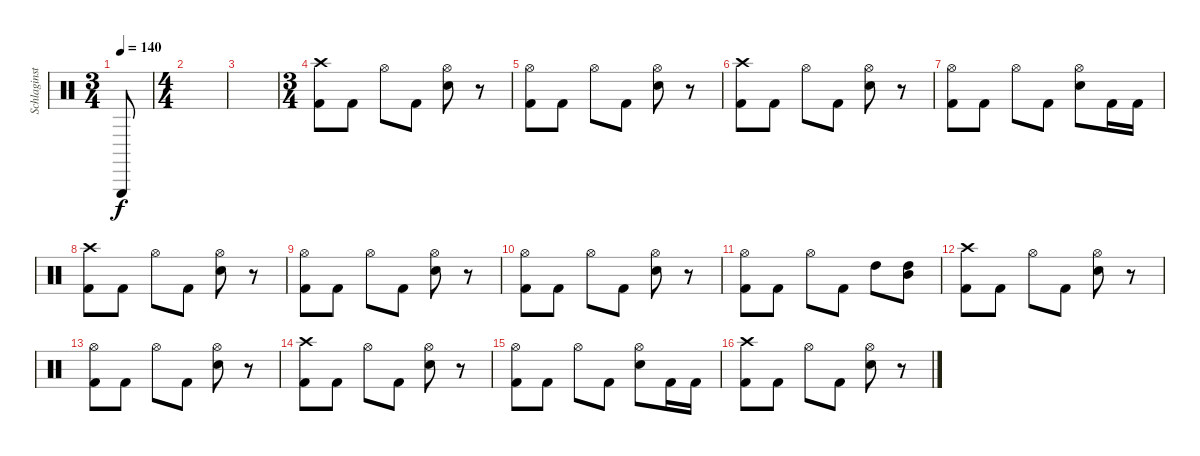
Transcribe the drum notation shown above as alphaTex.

\track ("Schlaginstrumente - Auswahl" "Schlaginst") {instrument percussion}
\staff {score}
\articulation defaults
\ts (3 4)
\tempo 140
\clef neutral
\ks c "Triangle (hit)".8{dy f}
|
\ts (4 4)
|
|
\ts (3 4)
("Crash high (hit)" "Kick (hit) 2").8 "Kick (hit) 2".8 "Hi-Hat (open)".8 "Kick (hit) 2".8 ("Hi-Hat (open)" "Electric Snare (hit)").8 r.8 |
("Hi-Hat (open)" "Kick (hit) 2").8 "Kick (hit) 2".8 "Hi-Hat (open)".8 "Kick (hit) 2".8 ("Hi-Hat (open)" "Electric Snare (hit)").8 r.8 |
("Crash high (hit)" "Kick (hit) 2").8 "Kick (hit) 2".8 "Hi-Hat (open)".8 "Kick (hit) 2".8 ("Hi-Hat (open)" "Electric Snare (hit)").8 r.8 |
("Hi-Hat (open)" "Kick (hit) 2").8 "Kick (hit) 2".8 "Hi-Hat (open)".8 "Kick (hit) 2".8 ("Hi-Hat (open)" "Electric Snare (hit)").8 "Kick (hit) 2".16 "Kick (hit) 2".16 |
("Crash high (hit)" "Kick (hit) 2").8 "Kick (hit) 2".8 "Hi-Hat (open)".8 "Kick (hit) 2".8 ("Hi-Hat (open)" "Electric Snare (hit)").8 r.8 |
("Hi-Hat (open)" "Kick (hit) 2").8 "Kick (hit) 2".8 "Hi-Hat (open)".8 "Kick (hit) 2".8 ("Hi-Hat (open)" "Electric Snare (hit)").8 r.8 |
("Hi-Hat (open)" "Kick (hit) 2").8 "Kick (hit) 2".8 "Hi-Hat (open)".8 "Kick (hit) 2".8 ("Hi-Hat (open)" "Electric Snare (hit)").8 r.8 |
("Hi-Hat (open)" "Kick (hit) 2").8 "Kick (hit) 2".8 "Hi-Hat (open)".8 "Kick (hit) 2".8 "High Tom (hit)".8 ("High Tom (hit)" "Mid Tom (hit)").8 |
("Crash high (hit)" "Kick (hit) 2").8 "Kick (hit) 2".8 "Hi-Hat (open)".8 "Kick (hit) 2".8 ("Hi-Hat (open)" "Electric Snare (hit)").8 r.8 |
("Hi-Hat (open)" "Kick (hit) 2").8 "Kick (hit) 2".8 "Hi-Hat (open)".8 "Kick (hit) 2".8 ("Hi-Hat (open)" "Electric Snare (hit)").8 r.8 |
("Crash high (hit)" "Kick (hit) 2").8 "Kick (hit) 2".8 "Hi-Hat (open)".8 "Kick (hit) 2".8 ("Hi-Hat (open)" "Electric Snare (hit)").8 r.8 |
("Hi-Hat (open)" "Kick (hit) 2").8 "Kick (hit) 2".8 "Hi-Hat (open)".8 "Kick (hit) 2".8 ("Hi-Hat (open)" "Electric Snare (hit)").8 "Kick (hit) 2".16 "Kick (hit) 2".16 |
("Crash high (hit)" "Kick (hit) 2").8 "Kick (hit) 2".8 "Hi-Hat (open)".8 "Kick (hit) 2".8 ("Hi-Hat (open)" "Electric Snare (hit)").8 r.8
